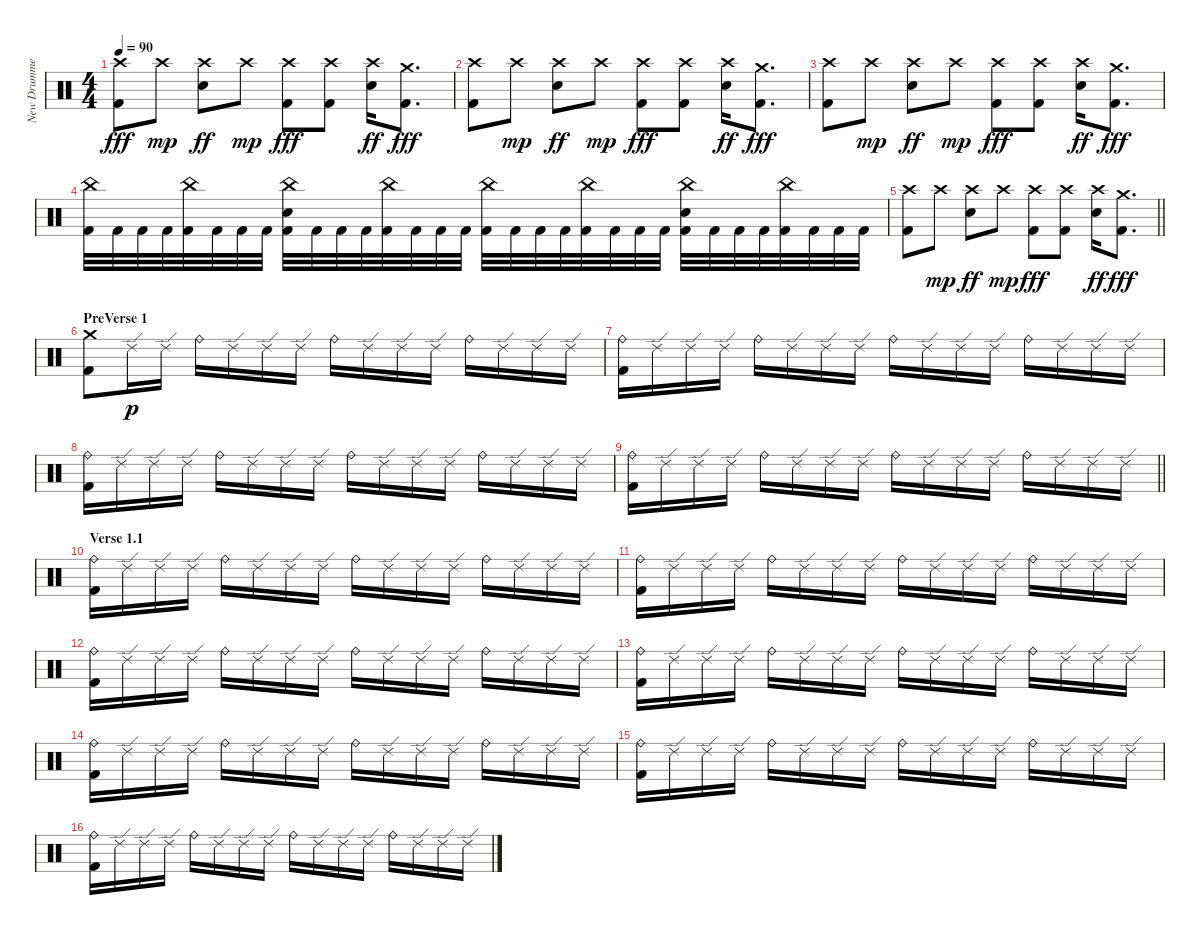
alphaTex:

\track ("New Drummer" "New Drumme") {instrument percussion}
\staff {score}
\articulation defaults
\ts (4 4)
\tempo 90
\clef neutral
\ks c
("Crash high (hit)" "Kick (hit) 2").8{dy fff} "Crash high (hit)".8{dy mp} ("Crash high (hit)" "Electric Snare (hit)").8{dy ff} "Crash high (hit)".8{dy mp} ("Crash high (hit)" "Kick (hit) 2").8{dy fff} ("Crash high (hit)" "Kick (hit) 2").8 ("Crash high (hit)" "Electric Snare (hit)").16{dy ff} ("Crash medium (hit)" "Kick (hit) 2").8{d dy fff} |
("Crash high (hit)" "Kick (hit) 2").8 "Crash high (hit)".8{dy mp} ("Crash high (hit)" "Electric Snare (hit)").8{dy ff} "Crash high (hit)".8{dy mp} ("Crash high (hit)" "Kick (hit) 2").8{dy fff} ("Crash high (hit)" "Kick (hit) 2").8 ("Crash high (hit)" "Electric Snare (hit)").16{dy ff} ("Crash medium (hit)" "Kick (hit) 2").8{d dy fff} |
("Crash high (hit)" "Kick (hit) 2").8 "Crash high (hit)".8{dy mp} ("Crash high (hit)" "Electric Snare (hit)").8{dy ff} "Crash high (hit)".8{dy mp} ("Crash high (hit)" "Kick (hit) 2").8{dy fff} ("Crash high (hit)" "Kick (hit) 2").8 ("Crash high (hit)" "Electric Snare (hit)").16{dy ff} ("Crash medium (hit)" "Kick (hit) 2").8{d dy fff} |
("China (hit)" "Kick (hit) 2").32 "Kick (hit) 2".32 "Kick (hit) 2".32 "Kick (hit) 2".32 ("China (hit)" "Kick (hit) 2").32 "Kick (hit) 2".32 "Kick (hit) 2".32 "Kick (hit) 2".32 ("China (hit)" "Electric Snare (hit)" "Kick (hit) 2").32 "Kick (hit) 2".32 "Kick (hit) 2".32 "Kick (hit) 2".32 ("China (hit)" "Kick (hit) 2").32 "Kick (hit) 2".32 "Kick (hit) 2".32 "Kick (hit) 2".32 ("China (hit)" "Kick (hit) 2").32 "Kick (hit) 2".32 "Kick (hit) 2".32 "Kick (hit) 2".32 ("China (hit)" "Kick (hit) 2").32 "Kick (hit) 2".32 "Kick (hit) 2".32 "Kick (hit) 2".32 ("China (hit)" "Electric Snare (hit)" "Kick (hit) 2").32 "Kick (hit) 2".32 "Kick (hit) 2".32 "Kick (hit) 2".32 ("China (hit)" "Kick (hit) 2").32 "Kick (hit) 2".32 "Kick (hit) 2".32 "Kick (hit) 2".32 |
\barLineRight lightlight
("Crash high (hit)" "Kick (hit) 2").8 "Crash high (hit)".8{dy mp} ("Crash high (hit)" "Electric Snare (hit)").8{dy ff} "Crash high (hit)".8{dy mp} ("Crash high (hit)" "Kick (hit) 2").8{dy fff} ("Crash high (hit)" "Kick (hit) 2").8 ("Crash high (hit)" "Electric Snare (hit)").16{dy ff} ("Crash medium (hit)" "Kick (hit) 2").8{d dy fff} |
\section ("" "PreVerse 1")
("Crash medium (hit)" "Kick (hit) 2").8 "Ride (edge) 2".16{dy p} "Ride (edge) 2".16 "Ride (bell)".16 "Ride (edge) 2".16 "Ride (edge) 2".16 "Ride (edge) 2".16 "Ride (bell)".16 "Ride (edge) 2".16 "Ride (edge) 2".16 "Ride (edge) 2".16 "Ride (bell)".16 "Ride (edge) 2".16 "Ride (edge) 2".16 "Ride (edge) 2".16 |
("Ride (bell)" "Kick (hit) 2").16 "Ride (edge) 2".16 "Ride (edge) 2".16 "Ride (edge) 2".16 "Ride (bell)".16 "Ride (edge) 2".16 "Ride (edge) 2".16 "Ride (edge) 2".16 "Ride (bell)".16 "Ride (edge) 2".16 "Ride (edge) 2".16 "Ride (edge) 2".16 "Ride (bell)".16 "Ride (edge) 2".16 "Ride (edge) 2".16 "Ride (edge) 2".16 |
("Ride (bell)" "Kick (hit) 2").16 "Ride (edge) 2".16 "Ride (edge) 2".16 "Ride (edge) 2".16 "Ride (bell)".16 "Ride (edge) 2".16 "Ride (edge) 2".16 "Ride (edge) 2".16 "Ride (bell)".16 "Ride (edge) 2".16 "Ride (edge) 2".16 "Ride (edge) 2".16 "Ride (bell)".16 "Ride (edge) 2".16 "Ride (edge) 2".16 "Ride (edge) 2".16 |
\barLineRight lightlight
("Ride (bell)" "Kick (hit) 2").16 "Ride (edge) 2".16 "Ride (edge) 2".16 "Ride (edge) 2".16 "Ride (bell)".16 "Ride (edge) 2".16 "Ride (edge) 2".16 "Ride (edge) 2".16 "Ride (bell)".16 "Ride (edge) 2".16 "Ride (edge) 2".16 "Ride (edge) 2".16 "Ride (bell)".16 "Ride (edge) 2".16 "Ride (edge) 2".16 "Ride (edge) 2".16 |
\section ("" "Verse 1.1")
("Ride (bell)" "Kick (hit) 2").16 "Ride (edge) 2".16 "Ride (edge) 2".16 "Ride (edge) 2".16 "Ride (bell)".16 "Ride (edge) 2".16 "Ride (edge) 2".16 "Ride (edge) 2".16 "Ride (bell)".16 "Ride (edge) 2".16 "Ride (edge) 2".16 "Ride (edge) 2".16 "Ride (bell)".16 "Ride (edge) 2".16 "Ride (edge) 2".16 "Ride (edge) 2".16 |
("Ride (bell)" "Kick (hit) 2").16 "Ride (edge) 2".16 "Ride (edge) 2".16 "Ride (edge) 2".16 "Ride (bell)".16 "Ride (edge) 2".16 "Ride (edge) 2".16 "Ride (edge) 2".16 "Ride (bell)".16 "Ride (edge) 2".16 "Ride (edge) 2".16 "Ride (edge) 2".16 "Ride (bell)".16 "Ride (edge) 2".16 "Ride (edge) 2".16 "Ride (edge) 2".16 |
("Ride (bell)" "Kick (hit) 2").16 "Ride (edge) 2".16 "Ride (edge) 2".16 "Ride (edge) 2".16 "Ride (bell)".16 "Ride (edge) 2".16 "Ride (edge) 2".16 "Ride (edge) 2".16 "Ride (bell)".16 "Ride (edge) 2".16 "Ride (edge) 2".16 "Ride (edge) 2".16 "Ride (bell)".16 "Ride (edge) 2".16 "Ride (edge) 2".16 "Ride (edge) 2".16 |
("Ride (bell)" "Kick (hit) 2").16 "Ride (edge) 2".16 "Ride (edge) 2".16 "Ride (edge) 2".16 "Ride (bell)".16 "Ride (edge) 2".16 "Ride (edge) 2".16 "Ride (edge) 2".16 "Ride (bell)".16 "Ride (edge) 2".16 "Ride (edge) 2".16 "Ride (edge) 2".16 "Ride (bell)".16 "Ride (edge) 2".16 "Ride (edge) 2".16 "Ride (edge) 2".16 |
("Ride (bell)" "Kick (hit) 2").16 "Ride (edge) 2".16 "Ride (edge) 2".16 "Ride (edge) 2".16 "Ride (bell)".16 "Ride (edge) 2".16 "Ride (edge) 2".16 "Ride (edge) 2".16 "Ride (bell)".16 "Ride (edge) 2".16 "Ride (edge) 2".16 "Ride (edge) 2".16 "Ride (bell)".16 "Ride (edge) 2".16 "Ride (edge) 2".16 "Ride (edge) 2".16 |
("Ride (bell)" "Kick (hit) 2").16 "Ride (edge) 2".16 "Ride (edge) 2".16 "Ride (edge) 2".16 "Ride (bell)".16 "Ride (edge) 2".16 "Ride (edge) 2".16 "Ride (edge) 2".16 "Ride (bell)".16 "Ride (edge) 2".16 "Ride (edge) 2".16 "Ride (edge) 2".16 "Ride (bell)".16 "Ride (edge) 2".16 "Ride (edge) 2".16 "Ride (edge) 2".16 |
("Ride (bell)" "Kick (hit) 2").16 "Ride (edge) 2".16 "Ride (edge) 2".16 "Ride (edge) 2".16 "Ride (bell)".16 "Ride (edge) 2".16 "Ride (edge) 2".16 "Ride (edge) 2".16 "Ride (bell)".16 "Ride (edge) 2".16 "Ride (edge) 2".16 "Ride (edge) 2".16 "Ride (bell)".16 "Ride (edge) 2".16 "Ride (edge) 2".16 "Ride (edge) 2".16
